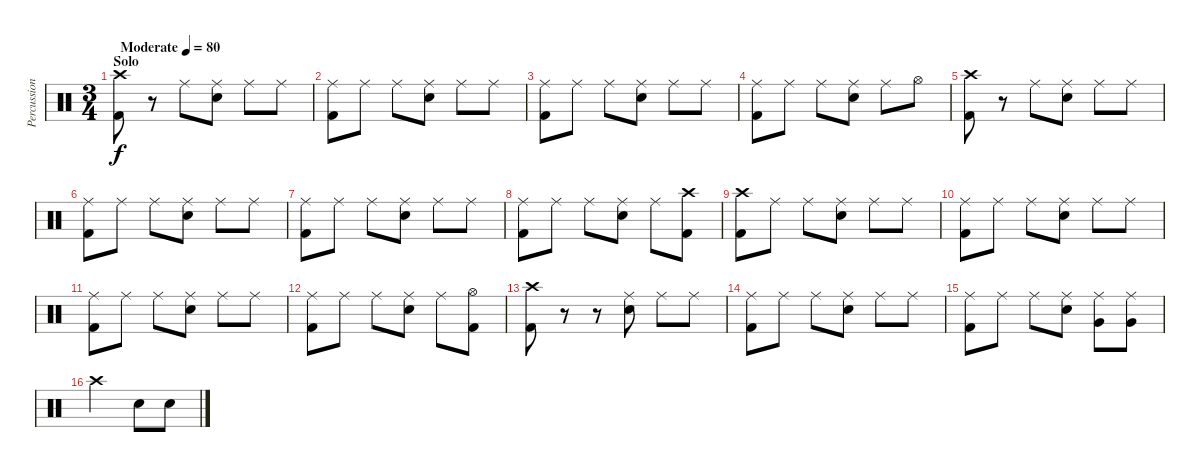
\track ("Percussion" "Percussion") {instrument percussion}
\staff {score}
\articulation defaults
\ts (3 4)
\section ("" "Solo")
\tempo (80 "Moderate")
\clef neutral
\ks c
("Crash high (hit)" "Kick (hit) 2").8{dy f} r.8 "Ride (middle)".8 ("Ride (middle)" "Snare (hit) 2").8 "Ride (middle)".8 "Ride (middle)".8 |
("Ride (middle)" "Kick (hit) 2").8 "Ride (middle)".8 "Ride (middle)".8 ("Ride (middle)" "Snare (hit) 2").8 "Ride (middle)".8 "Ride (middle)".8 |
("Ride (middle)" "Kick (hit) 2").8 "Ride (middle)".8 "Ride (middle)".8 ("Ride (middle)" "Snare (hit) 2").8 "Ride (middle)".8 "Ride (middle)".8 |
("Ride (middle)" "Kick (hit) 2").8 "Ride (middle)".8 "Ride (middle)".8 ("Ride (middle)" "Snare (hit) 2").8 "Ride (middle)".8 "Hi-Hat (open)".8 |
("Crash high (hit)" "Kick (hit) 2").8 r.8 "Ride (middle)".8 ("Ride (middle)" "Snare (hit) 2").8 "Ride (middle)".8 "Ride (middle)".8 |
("Ride (middle)" "Kick (hit) 2").8 "Ride (middle)".8 "Ride (middle)".8 ("Ride (middle)" "Snare (hit) 2").8 "Ride (middle)".8 "Ride (middle)".8 |
("Ride (middle)" "Kick (hit) 2").8 "Ride (middle)".8 "Ride (middle)".8 ("Ride (middle)" "Snare (hit) 2").8 "Ride (middle)".8 "Ride (middle)".8 |
("Ride (middle)" "Kick (hit) 2").8 "Ride (middle)".8 "Ride (middle)".8 ("Ride (middle)" "Snare (hit) 2").8 "Ride (middle)".8 ("Crash high (hit)" "Kick (hit) 2").8 |
("Crash high (hit)" "Kick (hit) 2").8 "Ride (middle)".8 "Ride (middle)".8 ("Ride (middle)" "Snare (hit) 2").8 "Ride (middle)".8 "Ride (middle)".8 |
("Ride (middle)" "Kick (hit) 2").8 "Ride (middle)".8 "Ride (middle)".8 ("Ride (middle)" "Snare (hit) 2").8 "Ride (middle)".8 "Ride (middle)".8 |
("Ride (middle)" "Kick (hit) 2").8 "Ride (middle)".8 "Ride (middle)".8 ("Ride (middle)" "Snare (hit) 2").8 "Ride (middle)".8 "Ride (middle)".8 |
("Ride (middle)" "Kick (hit) 2").8 "Ride (middle)".8 "Ride (middle)".8 ("Ride (middle)" "Snare (hit) 2").8 "Ride (middle)".8 ("Hi-Hat (open)" "Kick (hit) 2").8 |
("Crash high (hit)" "Kick (hit) 2").8 r.8 r.8 ("Ride (middle)" "Snare (hit) 2").8 "Ride (middle)".8 "Ride (middle)".8 |
("Ride (middle)" "Kick (hit) 2").8 "Ride (middle)".8 "Ride (middle)".8 ("Ride (middle)" "Snare (hit) 2").8 "Ride (middle)".8 "Ride (middle)".8 |
("Ride (middle)" "Kick (hit) 2").8 "Ride (middle)".8 "Ride (middle)".8 ("Ride (middle)" "Snare (hit) 2").8 ("Ride (middle)" "Very Low Tom (hit)").8 ("Ride (middle)" "Very Low Tom (hit)").8 |
"Crash high (hit)".2 "Snare (hit) 2".8 "Snare (hit) 2".8
